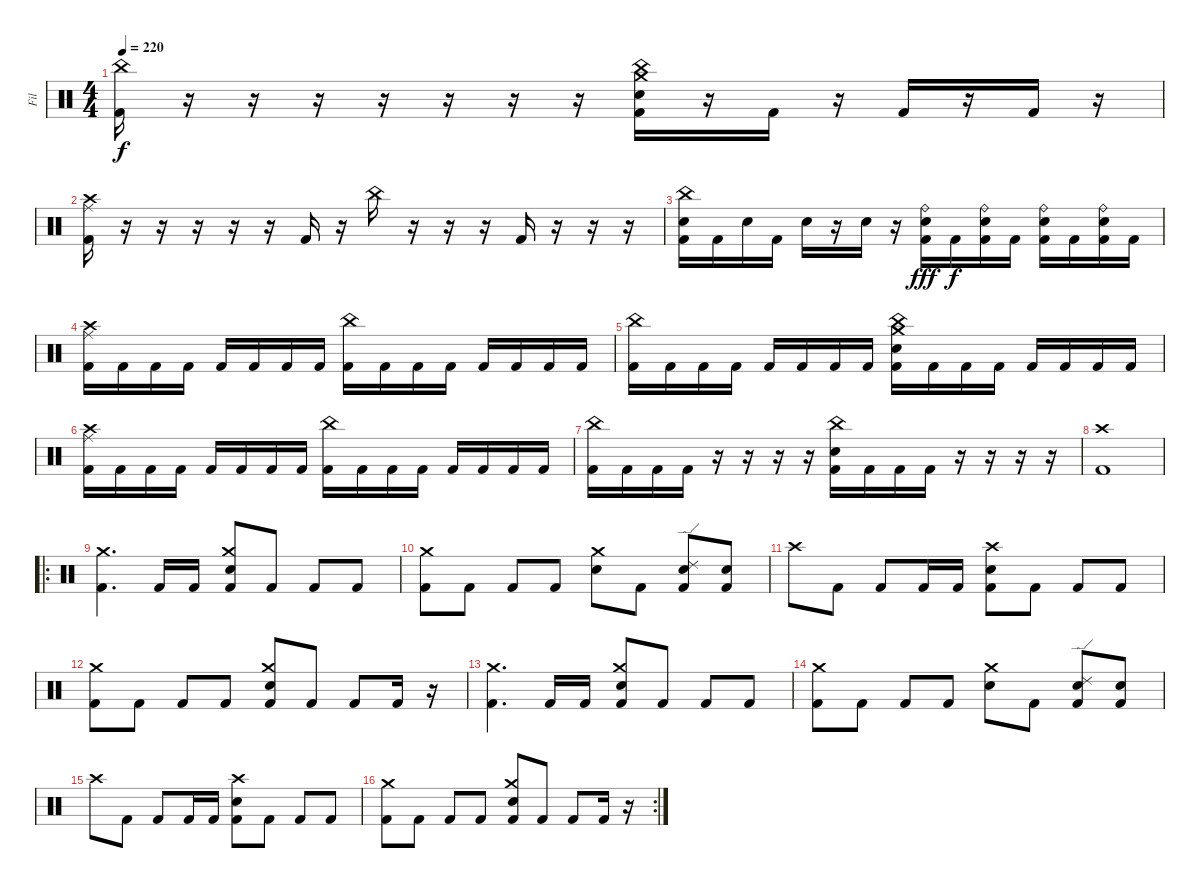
\track ("Fil" "Fil") {instrument percussion}
\staff {score}
\articulation defaults
\ts (4 4)
\tempo 220
\clef neutral
\ks c
("China (hit)" "Kick (hit) 2").16{dy f} r.16 r.16 r.16 r.16 r.16 r.16 r.16 ("Crash medium (hit)" "China (hit)" "Electric Snare (hit)" "Kick (hit) 2").16 r.16 "Kick (hit) 2".16 r.16 "Kick (hit) 2".16 r.16 "Kick (hit) 2".16 r.16 |
("Crash high (hit)" "Ride (middle)" "Kick (hit) 2").16 r.16 r.16 r.16 r.16 r.16 "Kick (hit) 2".16 r.16 "China (hit)".16 r.16 r.16 r.16 "Kick (hit) 2".16 r.16 r.16 r.16 |
("Snare (hit) 2" "China (hit)" "Kick (hit) 2").16 "Kick (hit) 2".16 "Snare (hit) 2".16 "Kick (hit) 2".16 "Snare (hit) 2".16 r.16 "Snare (hit) 2".16 r.16 ("Ride (bell)" "Electric Snare (hit)" "Kick (hit) 2").16{dy fff} "Kick (hit) 2".16{dy f} ("Snare (hit) 2" "Ride (bell)" "Kick (hit) 2").16 "Kick (hit) 2".16 ("Snare (hit) 2" "Ride (bell)" "Kick (hit) 2").16 "Kick (hit) 2".16 ("Snare (hit) 2" "Ride (bell)" "Kick (hit) 2").16 "Kick (hit) 2".16 |
("Crash high (hit)" "Ride (middle)" "Kick (hit) 2").16 "Kick (hit) 2".16 "Kick (hit) 2".16 "Kick (hit) 2".16 "Kick (hit) 2".16 "Kick (hit) 2".16 "Kick (hit) 2".16 "Kick (hit) 2".16 ("Kick (hit) 2" "China (hit)").16 "Kick (hit) 2".16 "Kick (hit) 2".16 "Kick (hit) 2".16 "Kick (hit) 2".16 "Kick (hit) 2".16 "Kick (hit) 2".16 "Kick (hit) 2".16 |
("China (hit)" "Kick (hit) 2").16 "Kick (hit) 2".16 "Kick (hit) 2".16 "Kick (hit) 2".16 "Kick (hit) 2".16 "Kick (hit) 2".16 "Kick (hit) 2".16 "Kick (hit) 2".16 ("Crash medium (hit)" "China (hit)" "Electric Snare (hit)" "Kick (hit) 2").16 "Kick (hit) 2".16 "Kick (hit) 2".16 "Kick (hit) 2".16 "Kick (hit) 2".16 "Kick (hit) 2".16 "Kick (hit) 2".16 "Kick (hit) 2".16 |
("Crash high (hit)" "Ride (middle)" "Kick (hit) 2").16 "Kick (hit) 2".16 "Kick (hit) 2".16 "Kick (hit) 2".16 "Kick (hit) 2".16 "Kick (hit) 2".16 "Kick (hit) 2".16 "Kick (hit) 2".16 ("Kick (hit) 2" "China (hit)").16 "Kick (hit) 2".16 "Kick (hit) 2".16 "Kick (hit) 2".16 "Kick (hit) 2".16 "Kick (hit) 2".16 "Kick (hit) 2".16 "Kick (hit) 2".16 |
("China (hit)" "Kick (hit) 2").16 "Kick (hit) 2".16 "Kick (hit) 2".16 "Kick (hit) 2".16 r.16 r.16 r.16 r.16 ("China (hit)" "Electric Snare (hit)" "Kick (hit) 2").16 "Kick (hit) 2".16 "Kick (hit) 2".16 "Kick (hit) 2".16 r.16 r.16 r.16 r.16 |
("Crash high (hit)" "Kick (hit) 2").1 |
\ro
("Crash medium (hit)" "Kick (hit) 2").4{d} "Kick (hit) 2".16 "Kick (hit) 2".16 ("Crash medium (hit)" "Electric Snare (hit)" "Kick (hit) 2").8 "Kick (hit) 2".8 "Kick (hit) 2".8 "Kick (hit) 2".8 |
("Crash medium (hit)" "Kick (hit) 2").8 "Kick (hit) 2".8 "Kick (hit) 2".8 "Kick (hit) 2".8 ("Crash medium (hit)" "Electric Snare (hit)").8 "Kick (hit) 2".8 ("Ride (edge) 2" "Electric Snare (hit)" "Kick (hit) 2").8 ("Electric Snare (hit)" "Kick (hit) 2").8 |
"Crash high (hit)".8 "Kick (hit) 2".8 "Kick (hit) 2".8 "Kick (hit) 2".16 "Kick (hit) 2".16 ("Crash high (hit)" "Electric Snare (hit)" "Kick (hit) 2").8 "Kick (hit) 2".8 "Kick (hit) 2".8 "Kick (hit) 2".8 |
("Crash medium (hit)" "Kick (hit) 2").8 "Kick (hit) 2".8 "Kick (hit) 2".8 "Kick (hit) 2".8 ("Crash medium (hit)" "Electric Snare (hit)" "Kick (hit) 2").8 "Kick (hit) 2".8 "Kick (hit) 2".8 "Kick (hit) 2".16 r.16 |
("Crash medium (hit)" "Kick (hit) 2").4{d} "Kick (hit) 2".16 "Kick (hit) 2".16 ("Crash medium (hit)" "Electric Snare (hit)" "Kick (hit) 2").8 "Kick (hit) 2".8 "Kick (hit) 2".8 "Kick (hit) 2".8 |
("Crash medium (hit)" "Kick (hit) 2").8 "Kick (hit) 2".8 "Kick (hit) 2".8 "Kick (hit) 2".8 ("Crash medium (hit)" "Electric Snare (hit)").8 "Kick (hit) 2".8 ("Ride (edge) 2" "Electric Snare (hit)" "Kick (hit) 2").8 ("Electric Snare (hit)" "Kick (hit) 2").8 |
"Crash high (hit)".8 "Kick (hit) 2".8 "Kick (hit) 2".8 "Kick (hit) 2".16 "Kick (hit) 2".16 ("Crash high (hit)" "Electric Snare (hit)" "Kick (hit) 2").8 "Kick (hit) 2".8 "Kick (hit) 2".8 "Kick (hit) 2".8 |
\rc 2
("Crash medium (hit)" "Kick (hit) 2").8 "Kick (hit) 2".8 "Kick (hit) 2".8 "Kick (hit) 2".8 ("Crash medium (hit)" "Electric Snare (hit)" "Kick (hit) 2").8 "Kick (hit) 2".8 "Kick (hit) 2".8 "Kick (hit) 2".16 r.16
